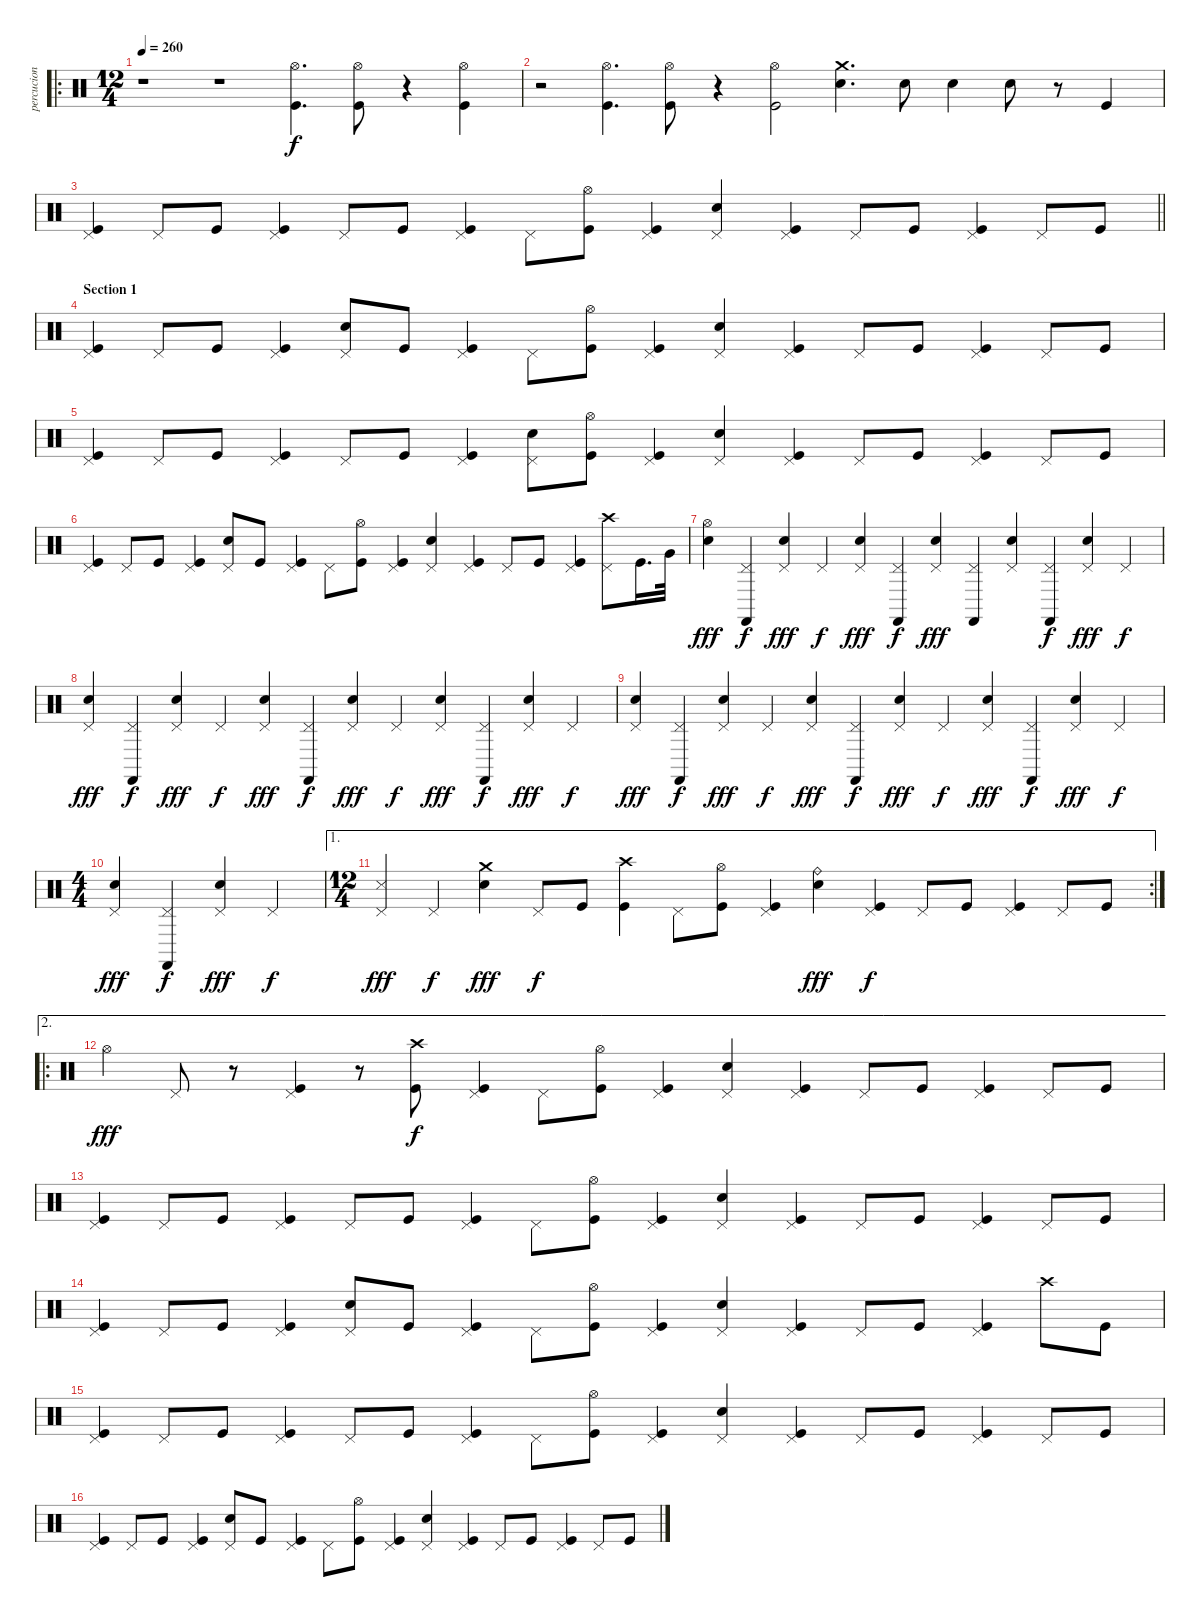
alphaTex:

\track ("percucion" "percucion") {instrument percussion}
\staff {score}
\articulation defaults
\ro
\ts (12 4)
\tempo 260
\clef neutral
\ks c
r.1{dy f} r.1 ("Hi-Hat (open)" "Kick (hit)").4{d} ("Hi-Hat (open)" "Kick (hit)").8 r.4 ("Hi-Hat (open)" "Kick (hit)").4 |
r.2 ("Hi-Hat (open)" "Kick (hit)").4{d} ("Hi-Hat (open)" "Kick (hit)").8 r.4 ("Hi-Hat (open)" "Kick (hit)").2 ("Electric Snare (hit)" "Crash medium (hit)").4{d} "Electric Snare (hit)".8 "Electric Snare (hit)".4 "Electric Snare (hit)".8 r.8 "Kick (hit)".4 |
\barLineRight lightlight
("Pedal Hi-Hat (hit)" "Kick (hit)").4 "Pedal Hi-Hat (hit)".8 "Kick (hit)".8 ("Pedal Hi-Hat (hit)" "Kick (hit)").4 "Pedal Hi-Hat (hit)".8 "Kick (hit)".8 ("Pedal Hi-Hat (hit)" "Kick (hit)").4 "Pedal Hi-Hat (hit)".8 ("Hi-Hat (open)" "Kick (hit)").8 ("Pedal Hi-Hat (hit)" "Kick (hit)").4 ("Pedal Hi-Hat (hit)" "Electric Snare (hit)").4 ("Pedal Hi-Hat (hit)" "Kick (hit)").4 "Pedal Hi-Hat (hit)".8 "Kick (hit)".8 ("Pedal Hi-Hat (hit)" "Kick (hit)").4 "Pedal Hi-Hat (hit)".8 "Kick (hit)".8 |
\section ("" "Section 1")
("Pedal Hi-Hat (hit)" "Kick (hit)").4 "Pedal Hi-Hat (hit)".8 "Kick (hit)".8 ("Pedal Hi-Hat (hit)" "Kick (hit)").4 ("Pedal Hi-Hat (hit)" "Electric Snare (hit)").8 "Kick (hit)".8 ("Pedal Hi-Hat (hit)" "Kick (hit)").4 "Pedal Hi-Hat (hit)".8 ("Hi-Hat (open)" "Kick (hit)").8 ("Pedal Hi-Hat (hit)" "Kick (hit)").4 ("Pedal Hi-Hat (hit)" "Electric Snare (hit)").4 ("Pedal Hi-Hat (hit)" "Kick (hit)").4 "Pedal Hi-Hat (hit)".8 "Kick (hit)".8 ("Pedal Hi-Hat (hit)" "Kick (hit)").4 "Pedal Hi-Hat (hit)".8 "Kick (hit)".8 |
("Pedal Hi-Hat (hit)" "Kick (hit)").4 "Pedal Hi-Hat (hit)".8 "Kick (hit)".8 ("Pedal Hi-Hat (hit)" "Kick (hit)").4 "Pedal Hi-Hat (hit)".8 "Kick (hit)".8 ("Pedal Hi-Hat (hit)" "Kick (hit)").4 ("Pedal Hi-Hat (hit)" "Electric Snare (hit)").8 ("Hi-Hat (open)" "Kick (hit)").8 ("Pedal Hi-Hat (hit)" "Kick (hit)").4 ("Pedal Hi-Hat (hit)" "Electric Snare (hit)").4 ("Pedal Hi-Hat (hit)" "Kick (hit)").4 "Pedal Hi-Hat (hit)".8 "Kick (hit)".8 ("Pedal Hi-Hat (hit)" "Kick (hit)").4 "Pedal Hi-Hat (hit)".8 "Kick (hit)".8 |
("Pedal Hi-Hat (hit)" "Kick (hit)").4 "Pedal Hi-Hat (hit)".8 "Kick (hit)".8 ("Pedal Hi-Hat (hit)" "Kick (hit)").4 ("Pedal Hi-Hat (hit)" "Electric Snare (hit)").8 "Kick (hit)".8 ("Pedal Hi-Hat (hit)" "Kick (hit)").4 "Pedal Hi-Hat (hit)".8 ("Hi-Hat (open)" "Kick (hit)").8 ("Pedal Hi-Hat (hit)" "Kick (hit)").4 ("Pedal Hi-Hat (hit)" "Electric Snare (hit)").4 ("Pedal Hi-Hat (hit)" "Kick (hit)").4 "Pedal Hi-Hat (hit)".8 "Kick (hit)".8 ("Pedal Hi-Hat (hit)" "Kick (hit)").4 ("Pedal Hi-Hat (hit)" "Crash high (hit)").8 "Kick (hit)".16{d} "Very Low Tom (hit)".32 |
("Hi-Hat (open)" "Hand Clap (hit)").4{dy fff volume 16} ("Pedal Hi-Hat (hit)" "Castanets (hit)").4{dy f} ("Pedal Hi-Hat (hit)" "Hand Clap (hit)").4{dy fff} "Pedal Hi-Hat (hit)".4{dy f} ("Pedal Hi-Hat (hit)" "Hand Clap (hit)").4{dy fff} ("Pedal Hi-Hat (hit)" "Castanets (hit)").4{dy f} ("Pedal Hi-Hat (hit)" "Hand Clap (hit)").4{dy fff} ("Pedal Hi-Hat (hit)" "Castanets (hit)").4 ("Pedal Hi-Hat (hit)" "Hand Clap (hit)").4 ("Pedal Hi-Hat (hit)" "Castanets (hit)").4{dy f} ("Pedal Hi-Hat (hit)" "Hand Clap (hit)").4{dy fff} "Pedal Hi-Hat (hit)".4{dy f} |
("Pedal Hi-Hat (hit)" "Hand Clap (hit)").4{dy fff} ("Pedal Hi-Hat (hit)" "Castanets (hit)").4{dy f} ("Pedal Hi-Hat (hit)" "Hand Clap (hit)").4{dy fff} "Pedal Hi-Hat (hit)".4{dy f} ("Pedal Hi-Hat (hit)" "Hand Clap (hit)").4{dy fff} ("Pedal Hi-Hat (hit)" "Castanets (hit)").4{dy f} ("Pedal Hi-Hat (hit)" "Hand Clap (hit)").4{dy fff} "Pedal Hi-Hat (hit)".4{dy f} ("Pedal Hi-Hat (hit)" "Hand Clap (hit)").4{dy fff} ("Pedal Hi-Hat (hit)" "Castanets (hit)").4{dy f} ("Pedal Hi-Hat (hit)" "Hand Clap (hit)").4{dy fff} "Pedal Hi-Hat (hit)".4{dy f} |
("Pedal Hi-Hat (hit)" "Hand Clap (hit)").4{dy fff} ("Pedal Hi-Hat (hit)" "Castanets (hit)").4{dy f} ("Pedal Hi-Hat (hit)" "Hand Clap (hit)").4{dy fff} "Pedal Hi-Hat (hit)".4{dy f} ("Pedal Hi-Hat (hit)" "Hand Clap (hit)").4{dy fff} ("Pedal Hi-Hat (hit)" "Castanets (hit)").4{dy f} ("Pedal Hi-Hat (hit)" "Hand Clap (hit)").4{dy fff} "Pedal Hi-Hat (hit)".4{dy f} ("Pedal Hi-Hat (hit)" "Hand Clap (hit)").4{dy fff} ("Pedal Hi-Hat (hit)" "Castanets (hit)").4{dy f} ("Pedal Hi-Hat (hit)" "Hand Clap (hit)").4{dy fff} "Pedal Hi-Hat (hit)".4{dy f} |
\ts (4 4)
("Pedal Hi-Hat (hit)" "Hand Clap (hit)").4{dy fff} ("Pedal Hi-Hat (hit)" "Castanets (hit)").4{dy f} ("Pedal Hi-Hat (hit)" "Hand Clap (hit)").4{dy fff} "Pedal Hi-Hat (hit)".4{dy f} |
\ae 1
\rc 2
\ts (12 4)
("Pedal Hi-Hat (hit)" "Snare (side stick) 3").4{dy fff} "Pedal Hi-Hat (hit)".4{dy f} ("Crash medium (hit)" "Hand Clap (hit)").4{dy fff} "Pedal Hi-Hat (hit)".8{dy f} "Kick (hit)".8 ("Crash high (hit)" "Kick (hit)").4 "Pedal Hi-Hat (hit)".8 ("Hi-Hat (open)" "Kick (hit)").8 ("Pedal Hi-Hat (hit)" "Kick (hit)").4 ("Ride (bell)" "Electric Snare (hit)").4{dy fff} ("Pedal Hi-Hat (hit)" "Kick (hit)").4{dy f} "Pedal Hi-Hat (hit)".8 "Kick (hit)".8 ("Pedal Hi-Hat (hit)" "Kick (hit)").4 "Pedal Hi-Hat (hit)".8 "Kick (hit)".8 |
\ae 2
\ro "Hi-Hat (open)".4{dy fff volume 11} "Pedal Hi-Hat (hit)".8
r.8 ("Kick (hit)" "Pedal Hi-Hat (hit)").4 r.8 ("Crash high (hit)" "Kick (hit)").8{dy f} ("Pedal Hi-Hat (hit)" "Kick (hit)").4 "Pedal Hi-Hat (hit)".8 ("Hi-Hat (open)" "Kick (hit)").8 ("Pedal Hi-Hat (hit)" "Kick (hit)").4 ("Pedal Hi-Hat (hit)" "Electric Snare (hit)").4 ("Pedal Hi-Hat (hit)" "Kick (hit)").4 "Pedal Hi-Hat (hit)".8 "Kick (hit)".8 ("Pedal Hi-Hat (hit)" "Kick (hit)").4 "Pedal Hi-Hat (hit)".8 "Kick (hit)".8 |
("Pedal Hi-Hat (hit)" "Kick (hit)").4 "Pedal Hi-Hat (hit)".8 "Kick (hit)".8 ("Pedal Hi-Hat (hit)" "Kick (hit)").4 "Pedal Hi-Hat (hit)".8 "Kick (hit)".8 ("Pedal Hi-Hat (hit)" "Kick (hit)").4 "Pedal Hi-Hat (hit)".8 ("Hi-Hat (open)" "Kick (hit)").8 ("Pedal Hi-Hat (hit)" "Kick (hit)").4 ("Pedal Hi-Hat (hit)" "Electric Snare (hit)").4 ("Pedal Hi-Hat (hit)" "Kick (hit)").4 "Pedal Hi-Hat (hit)".8 "Kick (hit)".8 ("Pedal Hi-Hat (hit)" "Kick (hit)").4 "Pedal Hi-Hat (hit)".8 "Kick (hit)".8 |
("Pedal Hi-Hat (hit)" "Kick (hit)").4 "Pedal Hi-Hat (hit)".8 "Kick (hit)".8 ("Pedal Hi-Hat (hit)" "Kick (hit)").4 ("Pedal Hi-Hat (hit)" "Electric Snare (hit)").8 "Kick (hit)".8 ("Pedal Hi-Hat (hit)" "Kick (hit)").4 "Pedal Hi-Hat (hit)".8 ("Hi-Hat (open)" "Kick (hit)").8 ("Pedal Hi-Hat (hit)" "Kick (hit)").4 ("Pedal Hi-Hat (hit)" "Electric Snare (hit)").4 ("Pedal Hi-Hat (hit)" "Kick (hit)").4 "Pedal Hi-Hat (hit)".8 "Kick (hit)".8 ("Pedal Hi-Hat (hit)" "Kick (hit)").4 "Crash high (hit)".8 "Kick (hit)".8 |
("Pedal Hi-Hat (hit)" "Kick (hit)").4 "Pedal Hi-Hat (hit)".8 "Kick (hit)".8 ("Pedal Hi-Hat (hit)" "Kick (hit)").4 "Pedal Hi-Hat (hit)".8 "Kick (hit)".8 ("Pedal Hi-Hat (hit)" "Kick (hit)").4 "Pedal Hi-Hat (hit)".8 ("Hi-Hat (open)" "Kick (hit)").8 ("Pedal Hi-Hat (hit)" "Kick (hit)").4 ("Pedal Hi-Hat (hit)" "Electric Snare (hit)").4 ("Pedal Hi-Hat (hit)" "Kick (hit)").4 "Pedal Hi-Hat (hit)".8 "Kick (hit)".8 ("Pedal Hi-Hat (hit)" "Kick (hit)").4 "Pedal Hi-Hat (hit)".8 "Kick (hit)".8 |
("Pedal Hi-Hat (hit)" "Kick (hit)").4 "Pedal Hi-Hat (hit)".8 "Kick (hit)".8 ("Pedal Hi-Hat (hit)" "Kick (hit)").4 ("Pedal Hi-Hat (hit)" "Electric Snare (hit)").8 "Kick (hit)".8 ("Pedal Hi-Hat (hit)" "Kick (hit)").4 "Pedal Hi-Hat (hit)".8 ("Hi-Hat (open)" "Kick (hit)").8 ("Pedal Hi-Hat (hit)" "Kick (hit)").4 ("Pedal Hi-Hat (hit)" "Electric Snare (hit)").4 ("Pedal Hi-Hat (hit)" "Kick (hit)").4 "Pedal Hi-Hat (hit)".8 "Kick (hit)".8 ("Pedal Hi-Hat (hit)" "Kick (hit)").4 "Pedal Hi-Hat (hit)".8 "Kick (hit)".8
